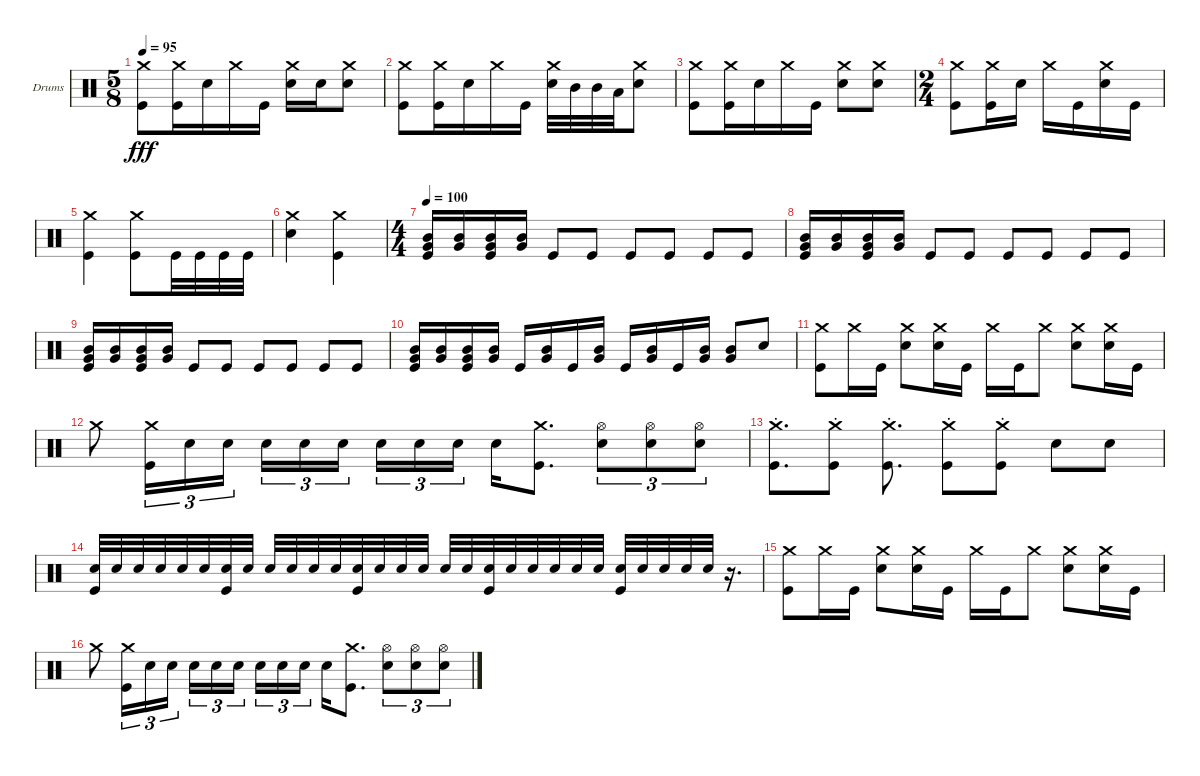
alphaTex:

\bracketExtendMode groupsimilarinstruments
\firstSystemTrackNameOrientation horizontal
\otherSystemsTrackNameOrientation horizontal
\track ("Andrew Forsman" "Drums") {instrument percussion}
\staff {score}
\articulation defaults
\ts (5 8)
\tempo 95
\clef neutral
\scale
0.333333
\ks c
("Kick (hit)" "Crash medium (hit)").8{dy fff} ("Kick (hit)" "Crash medium (hit)").16 "Snare (hit) 2".16 "Crash medium (hit)".16 "Kick (hit)".16 ("Snare (hit) 2" "Crash medium (hit)").16 "Snare (hit) 2".16 ("Snare (hit) 2" "Crash medium (hit)").8 |
\scale
0.333333 ("Kick (hit)" "Crash medium (hit)").8 ("Kick (hit)" "Crash medium (hit)").16 "Snare (hit) 2".16 "Crash medium (hit)".16 "Kick (hit)".16 ("Snare (hit) 2" "Crash medium (hit)").32 "Mid Tom (hit)".32 "Mid Tom (hit)".32 "Low Tom (hit)".32 ("Snare (hit) 2" "Crash medium (hit)").8 |
\scale
0.333333 ("Kick (hit)" "Crash medium (hit)").8 ("Kick (hit)" "Crash medium (hit)").16 "Snare (hit) 2".16 "Crash medium (hit)".16 "Kick (hit)".16 ("Snare (hit) 2" "Crash medium (hit)").8 ("Snare (hit) 2" "Crash medium (hit)").8 |
\ts (2 4)
\beaming (8 2 2)
\scale
0.474178 ("Kick (hit)" "Crash medium (hit)").8 ("Kick (hit)" "Crash medium (hit)").16 "Snare (hit) 2".16 "Crash medium (hit)".16 "Kick (hit)".16 ("Snare (hit) 2" "Crash medium (hit)").16 "Kick (hit)".16 |
\scale
0.262911 ("Crash medium (hit)" "Kick (hit)").4 ("Crash medium (hit)" "Kick (hit)").8 "Kick (hit)".32 "Kick (hit)".32 "Kick (hit)".32 "Kick (hit)".32 |
\scale
0.262911 ("Snare (hit) 2" "Crash medium (hit)").4 ("Crash medium (hit)" "Kick (hit)").4 |
\ts (4 4)
\beaming (8 2 2 2 2)
\tempo 100
\scale
0.474178 ("Mid Tom (hit)" "Very Low Tom (hit)" "Kick (hit)").16 ("Very Low Tom (hit)" "Mid Tom (hit)").16 ("Very Low Tom (hit)" "Mid Tom (hit)" "Kick (hit)").16 ("Very Low Tom (hit)" "Mid Tom (hit)").16 "Kick (hit)".8 "Kick (hit)".8 "Kick (hit)".8 "Kick (hit)".8 "Kick (hit)".8 "Kick (hit)".8 |
\scale
0.262911 ("Mid Tom (hit)" "Very Low Tom (hit)" "Kick (hit)").16 ("Very Low Tom (hit)" "Mid Tom (hit)").16 ("Very Low Tom (hit)" "Mid Tom (hit)" "Kick (hit)").16 ("Very Low Tom (hit)" "Mid Tom (hit)").16 "Kick (hit)".8 "Kick (hit)".8 "Kick (hit)".8 "Kick (hit)".8 "Kick (hit)".8 "Kick (hit)".8 |
\scale
0.262911 ("Mid Tom (hit)" "Very Low Tom (hit)" "Kick (hit)").16 ("Very Low Tom (hit)" "Mid Tom (hit)").16 ("Very Low Tom (hit)" "Mid Tom (hit)" "Kick (hit)").16 ("Very Low Tom (hit)" "Mid Tom (hit)").16 "Kick (hit)".8 "Kick (hit)".8 "Kick (hit)".8 "Kick (hit)".8 "Kick (hit)".8 "Kick (hit)".8 |
\scale
0.333333 ("Mid Tom (hit)" "Very Low Tom (hit)" "Kick (hit)").16 ("Very Low Tom (hit)" "Mid Tom (hit)").16 ("Very Low Tom (hit)" "Mid Tom (hit)" "Kick (hit)").16 ("Very Low Tom (hit)" "Mid Tom (hit)").16 "Kick (hit)".16 ("Very Low Tom (hit)" "Mid Tom (hit)").16 "Kick (hit)".16 ("Very Low Tom (hit)" "Mid Tom (hit)").16 "Kick (hit)".16 ("Very Low Tom (hit)" "Mid Tom (hit)").16 "Kick (hit)".16 ("Very Low Tom (hit)" "Mid Tom (hit)").16 ("Mid Tom (hit)" "Very Low Tom (hit)").8 "Snare (hit) 2".8 |
\scale
0.333333 ("Kick (hit)" "Crash medium (hit)").8 "Crash medium (hit)".16 "Kick (hit)".16 ("Snare (hit) 2" "Crash medium (hit)").8 ("Snare (hit) 2" "Crash medium (hit)").16 "Kick (hit)".16 "Crash medium (hit)".16 "Kick (hit)".16 "Crash medium (hit)".8 ("Snare (hit) 2" "Crash medium (hit)").8 ("Snare (hit) 2" "Crash medium (hit)").16 "Kick (hit)".16 |
\scale
0.333333 "Crash medium (hit)".8 ("Kick (hit)" "Crash medium (hit)").16{tu (3 2)} "Snare (hit) 2".16{tu (3 2)} "Snare (hit) 2".16{tu (3 2)} "Snare (hit) 2".16{tu (3 2)} "Snare (hit) 2".16{tu (3 2)} "Snare (hit) 2".16{tu (3 2)} "Snare (hit) 2".16{tu (3 2)} "Snare (hit) 2".16{tu (3 2)} "Snare (hit) 2".16{tu (3 2)} "Snare (hit) 2".16 ("Kick (hit)" "Crash medium (hit)").8{d} ("Snare (hit) 2" "Hi-Hat (open)").8{tu (3 2)} ("Snare (hit) 2" "Hi-Hat (open)").8{tu (3 2)} ("Snare (hit) 2" "Hi-Hat (open)").8{tu (3 2)} |
\scale
0.333333 ("Kick (hit)" "Crash medium (hit)"{st}).8{d} ("Kick (hit)" "Crash medium (hit)"{st}).8 ("Kick (hit)" "Crash medium (hit)"{st}).8{d} ("Kick (hit)" "Crash medium (hit)"{st}).8 ("Kick (hit)" "Crash medium (hit)"{st}).8 "Snare (hit) 2".8 "Snare (hit) 2".8 |
\scale
0.333333 ("Snare (hit) 2" "Kick (hit)").32 "Snare (hit) 2".32 "Snare (hit) 2".32 "Snare (hit) 2".32 "Snare (hit) 2".32 "Snare (hit) 2".32 ("Snare (hit) 2" "Kick (hit)").32 "Snare (hit) 2".32 "Snare (hit) 2".32 "Snare (hit) 2".32 "Snare (hit) 2".32 "Snare (hit) 2".32 ("Snare (hit) 2" "Kick (hit)").32 "Snare (hit) 2".32 "Snare (hit) 2".32 "Snare (hit) 2".32 "Snare (hit) 2".32 "Snare (hit) 2".32 ("Snare (hit) 2" "Kick (hit)").32 "Snare (hit) 2".32 "Snare (hit) 2".32 "Snare (hit) 2".32 "Snare (hit) 2".32 "Snare (hit) 2".32 ("Snare (hit) 2" "Kick (hit)").32 "Snare (hit) 2".32 "Snare (hit) 2".32 "Snare (hit) 2".32 "Snare (hit) 2".32 r.16{d} |
\scale
0.333333 ("Kick (hit)" "Crash medium (hit)").8 "Crash medium (hit)".16 "Kick (hit)".16 ("Snare (hit) 2" "Crash medium (hit)").8 ("Snare (hit) 2" "Crash medium (hit)").16 "Kick (hit)".16 "Crash medium (hit)".16 "Kick (hit)".16 "Crash medium (hit)".8 ("Snare (hit) 2" "Crash medium (hit)").8 ("Snare (hit) 2" "Crash medium (hit)").16 "Kick (hit)".16 |
\scale
0.333333 "Crash medium (hit)".8 ("Kick (hit)" "Crash medium (hit)").16{tu (3 2)} "Snare (hit) 2".16{tu (3 2)} "Snare (hit) 2".16{tu (3 2)} "Snare (hit) 2".16{tu (3 2)} "Snare (hit) 2".16{tu (3 2)} "Snare (hit) 2".16{tu (3 2)} "Snare (hit) 2".16{tu (3 2)} "Snare (hit) 2".16{tu (3 2)} "Snare (hit) 2".16{tu (3 2)} "Snare (hit) 2".16 ("Kick (hit)" "Crash medium (hit)").8{d} ("Snare (hit) 2" "Hi-Hat (open)").8{tu (3 2)} ("Snare (hit) 2" "Hi-Hat (open)").8{tu (3 2)} ("Snare (hit) 2" "Hi-Hat (open)").8{tu (3 2)}
